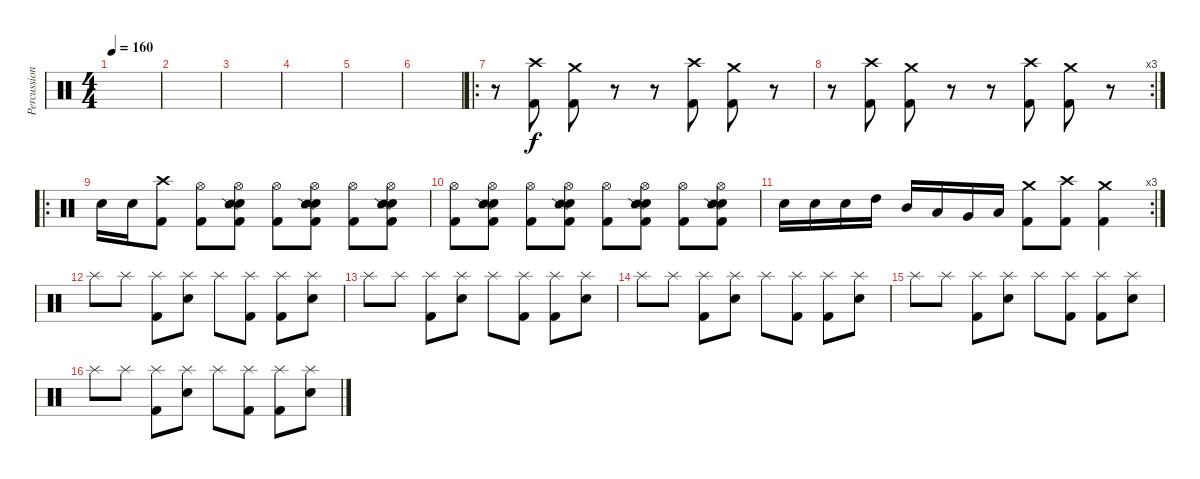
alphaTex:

\track ("Percussion" "Percussion") {instrument percussion}
\staff {score}
\articulation defaults
\ts (4 4)
\tempo 160
\clef neutral
\ks c
|
|
|
|
|
|
\ro
r.8 ("Crash high (hit)" "Kick (hit) 2").8 ("Crash medium (hit)" "Kick (hit) 2").8 r.8 r.8 ("Crash high (hit)" "Kick (hit) 2").8 ("Crash medium (hit)" "Kick (hit) 2").8 r.8 |
\rc 3
r.8 ("Crash high (hit)" "Kick (hit) 2").8 ("Crash medium (hit)" "Kick (hit) 2").8 r.8 r.8 ("Crash high (hit)" "Kick (hit) 2").8 ("Crash medium (hit)" "Kick (hit) 2").8 r.8 |
\ro "Electric Snare (hit)".16 "Electric Snare (hit)".16
("Crash high (hit)" "Kick (hit) 2").8 ("Hi-Hat (open)" "Kick (hit) 2").8 ("Hi-Hat (open)" "Electric Snare (hit)" "Snare (side stick) 2" "Kick (hit) 2").8 ("Hi-Hat (open)" "Kick (hit) 2").8 ("Hi-Hat (open)" "Electric Snare (hit)" "Snare (side stick) 2" "Kick (hit) 2").8 ("Hi-Hat (open)" "Kick (hit) 2").8 ("Hi-Hat (open)" "Electric Snare (hit)" "Snare (side stick) 2" "Kick (hit) 2").8 |
("Hi-Hat (open)" "Kick (hit) 2").8 ("Hi-Hat (open)" "Electric Snare (hit)" "Snare (side stick) 2" "Kick (hit) 2").8 ("Hi-Hat (open)" "Kick (hit) 2").8 ("Hi-Hat (open)" "Electric Snare (hit)" "Snare (side stick) 2" "Kick (hit) 2").8 ("Hi-Hat (open)" "Kick (hit) 2").8 ("Hi-Hat (open)" "Electric Snare (hit)" "Snare (side stick) 2" "Kick (hit) 2").8 ("Hi-Hat (open)" "Kick (hit) 2").8 ("Hi-Hat (open)" "Electric Snare (hit)" "Snare (side stick) 2" "Kick (hit) 2").8 |
\rc 3 "Electric Snare (hit)".16 "Electric Snare (hit)".16 "Electric Snare (hit)".16 "High Tom (hit)".16 "Mid Tom (hit)".16 "Low Tom (hit)".16 "Very Low Tom (hit)".16 "Low Floor Tom (hit)".16
("Crash medium (hit)" "Kick (hit) 2").8 ("Crash high (hit)" "Kick (hit) 2").8 ("Crash medium (hit)" "Kick (hit) 2").4 |
"Splash (hit)".8 "Splash (hit)".8 ("Splash (hit)" "Kick (hit) 2").8 ("Splash (hit)" "Electric Snare (hit)").8 "Splash (hit)".8 ("Splash (hit)" "Kick (hit) 2").8 ("Splash (hit)" "Kick (hit) 2").8 ("Splash (hit)" "Electric Snare (hit)").8 |
"Splash (hit)".8 "Splash (hit)".8 ("Splash (hit)" "Kick (hit) 2").8 ("Splash (hit)" "Electric Snare (hit)").8 "Splash (hit)".8 ("Splash (hit)" "Kick (hit) 2").8 ("Splash (hit)" "Kick (hit) 2").8 ("Splash (hit)" "Electric Snare (hit)").8 |
"Splash (hit)".8 "Splash (hit)".8 ("Splash (hit)" "Kick (hit) 2").8 ("Splash (hit)" "Electric Snare (hit)").8 "Splash (hit)".8 ("Splash (hit)" "Kick (hit) 2").8 ("Splash (hit)" "Kick (hit) 2").8 ("Splash (hit)" "Electric Snare (hit)").8 |
"Splash (hit)".8 "Splash (hit)".8 ("Splash (hit)" "Kick (hit) 2").8 ("Splash (hit)" "Electric Snare (hit)").8 "Splash (hit)".8 ("Splash (hit)" "Kick (hit) 2").8 ("Splash (hit)" "Kick (hit) 2").8 ("Splash (hit)" "Electric Snare (hit)").8 |
"Splash (hit)".8 "Splash (hit)".8 ("Splash (hit)" "Kick (hit) 2").8 ("Splash (hit)" "Electric Snare (hit)").8 "Splash (hit)".8 ("Splash (hit)" "Kick (hit) 2").8 ("Splash (hit)" "Kick (hit) 2").8 ("Splash (hit)" "Electric Snare (hit)").8
